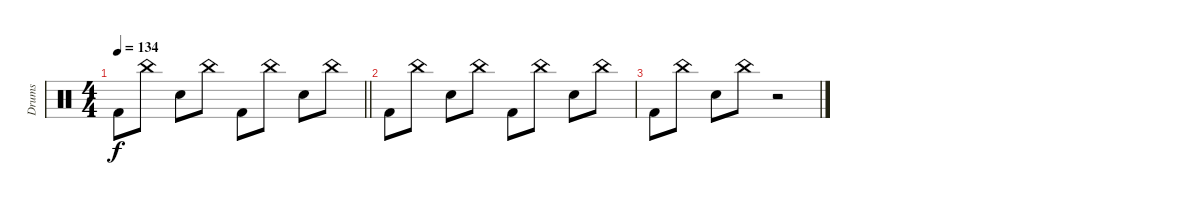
\track ("Drums" "Drums") {instrument percussion}
\staff {score}
\articulation defaults
\ts (4 4)
\tempo 134
\clef neutral
\barLineRight lightlight
\ks c "Kick (hit) 2".8{dy f} "China (hit)".8 "Electric Snare (hit)".8 "China (hit)".8 "Kick (hit) 2".8 "China (hit)".8 "Electric Snare (hit)".8 "China (hit)".8
|
"Kick (hit) 2".8 "China (hit)".8 "Electric Snare (hit)".8 "China (hit)".8 "Kick (hit) 2".8 "China (hit)".8 "Electric Snare (hit)".8 "China (hit)".8 |
"Kick (hit) 2".8 "China (hit)".8 "Electric Snare (hit)".8 "China (hit)".8 r.2
